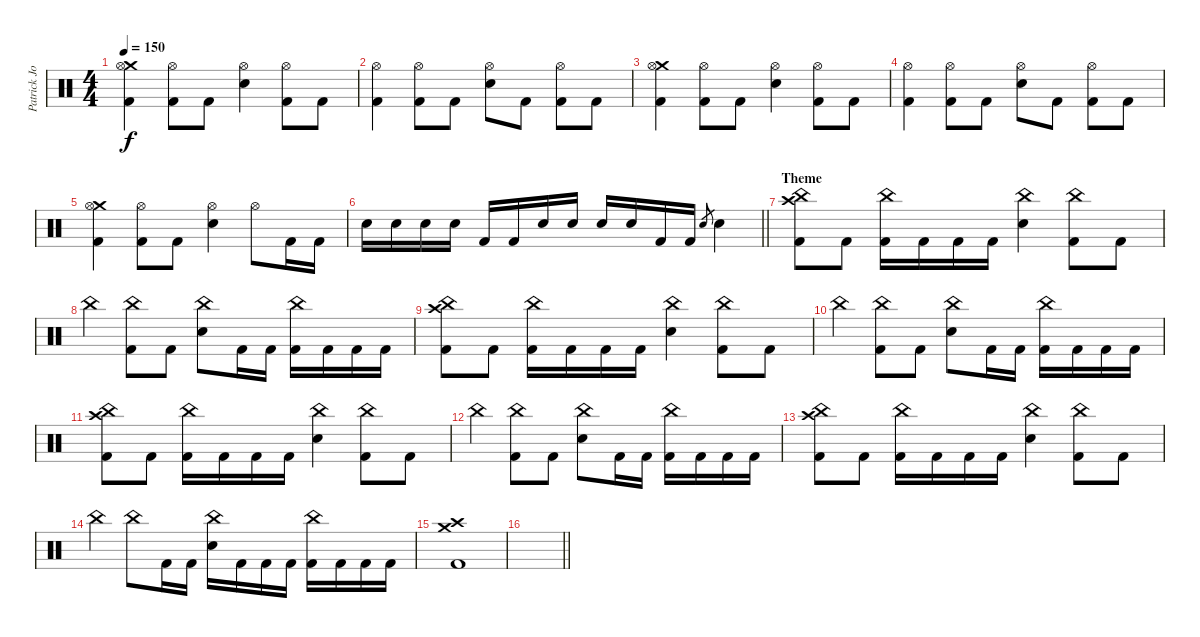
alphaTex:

\track ("Patrick Johansson" "Patrick Jo") {instrument percussion}
\staff {score}
\articulation defaults
\ts (4 4)
\tempo 150
\clef neutral
\ks c
("Crash medium (hit)" "Hi-Hat (open)" "Kick (hit) 2").4{dy f} ("Hi-Hat (open)" "Kick (hit) 2").8 "Kick (hit) 2".8 ("Hi-Hat (open)" "Snare (hit) 2").4 ("Hi-Hat (open)" "Kick (hit) 2").8 "Kick (hit) 2".8 |
("Hi-Hat (open)" "Kick (hit) 2").4 ("Hi-Hat (open)" "Kick (hit) 2").8 "Kick (hit) 2".8 ("Hi-Hat (open)" "Snare (hit) 2").8 "Kick (hit) 2".8 ("Hi-Hat (open)" "Kick (hit) 2").8 "Kick (hit) 2".8 |
("Crash medium (hit)" "Hi-Hat (open)" "Kick (hit) 2").4 ("Hi-Hat (open)" "Kick (hit) 2").8 "Kick (hit) 2".8 ("Hi-Hat (open)" "Snare (hit) 2").4 ("Hi-Hat (open)" "Kick (hit) 2").8 "Kick (hit) 2".8 |
("Hi-Hat (open)" "Kick (hit) 2").4 ("Hi-Hat (open)" "Kick (hit) 2").8 "Kick (hit) 2".8 ("Hi-Hat (open)" "Snare (hit) 2").8 "Kick (hit) 2".8 ("Hi-Hat (open)" "Kick (hit) 2").8 "Kick (hit) 2".8 |
("Crash medium (hit)" "Hi-Hat (open)" "Kick (hit) 2").4 ("Hi-Hat (open)" "Kick (hit) 2").8 "Kick (hit) 2".8 ("Hi-Hat (open)" "Snare (hit) 2").4 "Hi-Hat (open)".8 "Kick (hit) 2".16 "Kick (hit) 2".16 |
\barLineRight lightlight "Snare (hit) 2".16 "Snare (hit) 2".16 "Snare (hit) 2".16 "Snare (hit) 2".16 "Kick (hit) 2".16 "Kick (hit) 2".16 "Snare (hit) 2".16 "Snare (hit) 2".16 "Snare (hit) 2".16 "Snare (hit) 2".16 "Kick (hit) 2".16 "Kick (hit) 2".16 "Snare (hit) 2".8{gr} "Snare (hit) 2".4
|
\section ("" "Theme")
("Crash high (hit)" "China (hit)" "Kick (hit) 2").8 "Kick (hit) 2".8 ("China (hit)" "Kick (hit) 2").16 "Kick (hit) 2".16 "Kick (hit) 2".16 "Kick (hit) 2".16 ("China (hit)" "Snare (hit) 2").4 ("China (hit)" "Kick (hit) 2").8 "Kick (hit) 2".8 |
"China (hit)".4 ("China (hit)" "Kick (hit) 2").8 "Kick (hit) 2".8 ("China (hit)" "Snare (hit) 2").8 "Kick (hit) 2".16 "Kick (hit) 2".16 ("China (hit)" "Kick (hit) 2").16 "Kick (hit) 2".16 "Kick (hit) 2".16 "Kick (hit) 2".16 |
("Crash high (hit)" "China (hit)" "Kick (hit) 2").8 "Kick (hit) 2".8 ("China (hit)" "Kick (hit) 2").16 "Kick (hit) 2".16 "Kick (hit) 2".16 "Kick (hit) 2".16 ("China (hit)" "Snare (hit) 2").4 ("China (hit)" "Kick (hit) 2").8 "Kick (hit) 2".8 |
"China (hit)".4 ("China (hit)" "Kick (hit) 2").8 "Kick (hit) 2".8 ("China (hit)" "Snare (hit) 2").8 "Kick (hit) 2".16 "Kick (hit) 2".16 ("China (hit)" "Kick (hit) 2").16 "Kick (hit) 2".16 "Kick (hit) 2".16 "Kick (hit) 2".16 |
("Crash high (hit)" "China (hit)" "Kick (hit) 2").8 "Kick (hit) 2".8 ("China (hit)" "Kick (hit) 2").16 "Kick (hit) 2".16 "Kick (hit) 2".16 "Kick (hit) 2".16 ("China (hit)" "Snare (hit) 2").4 ("China (hit)" "Kick (hit) 2").8 "Kick (hit) 2".8 |
"China (hit)".4 ("China (hit)" "Kick (hit) 2").8 "Kick (hit) 2".8 ("China (hit)" "Snare (hit) 2").8 "Kick (hit) 2".16 "Kick (hit) 2".16 ("China (hit)" "Kick (hit) 2").16 "Kick (hit) 2".16 "Kick (hit) 2".16 "Kick (hit) 2".16 |
("Crash high (hit)" "China (hit)" "Kick (hit) 2").8 "Kick (hit) 2".8 ("China (hit)" "Kick (hit) 2").16 "Kick (hit) 2".16 "Kick (hit) 2".16 "Kick (hit) 2".16 ("China (hit)" "Snare (hit) 2").4 ("China (hit)" "Kick (hit) 2").8 "Kick (hit) 2".8 |
"China (hit)".4 "China (hit)".8 "Kick (hit) 2".16 "Kick (hit) 2".16 ("China (hit)" "Snare (hit) 2").16 "Kick (hit) 2".16 "Kick (hit) 2".16 "Kick (hit) 2".16 ("China (hit)" "Kick (hit) 2").16 "Kick (hit) 2".16 "Kick (hit) 2".16 "Kick (hit) 2".16 |
("Crash medium (hit)" "Crash high (hit)" "Kick (hit) 2").1 |
\barLineRight lightlight
